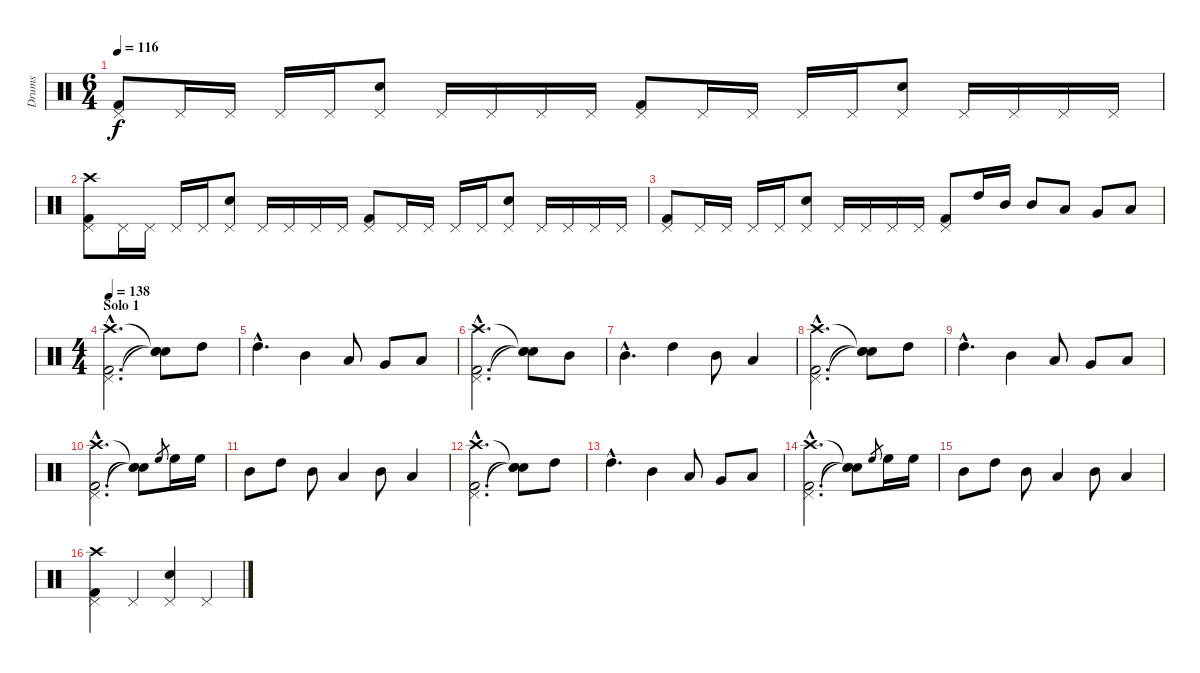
\track ("Drums" "Drums") {instrument percussion}
\staff {score}
\articulation defaults
\ts (6 4)
\tempo 116
\clef neutral
\ks c
("Kick (hit) 2" "Pedal Hi-Hat (hit)").8{dy f} "Pedal Hi-Hat (hit)".16 "Pedal Hi-Hat (hit)".16 "Pedal Hi-Hat (hit)".16 "Pedal Hi-Hat (hit)".16 ("Snare (hit) 2" "Pedal Hi-Hat (hit)").8 "Pedal Hi-Hat (hit)".16 "Pedal Hi-Hat (hit)".16 "Pedal Hi-Hat (hit)".16 "Pedal Hi-Hat (hit)".16 ("Kick (hit) 2" "Pedal Hi-Hat (hit)").8 "Pedal Hi-Hat (hit)".16 "Pedal Hi-Hat (hit)".16 "Pedal Hi-Hat (hit)".16 "Pedal Hi-Hat (hit)".16 ("Snare (hit) 2" "Pedal Hi-Hat (hit)").8 "Pedal Hi-Hat (hit)".16 "Pedal Hi-Hat (hit)".16 "Pedal Hi-Hat (hit)".16 "Pedal Hi-Hat (hit)".16 |
("Kick (hit) 2" "Pedal Hi-Hat (hit)" "Crash high (hit)").8 "Pedal Hi-Hat (hit)".16 "Pedal Hi-Hat (hit)".16 "Pedal Hi-Hat (hit)".16 "Pedal Hi-Hat (hit)".16 ("Snare (hit) 2" "Pedal Hi-Hat (hit)").8 "Pedal Hi-Hat (hit)".16 "Pedal Hi-Hat (hit)".16 "Pedal Hi-Hat (hit)".16 "Pedal Hi-Hat (hit)".16 ("Kick (hit) 2" "Pedal Hi-Hat (hit)").8 "Pedal Hi-Hat (hit)".16 "Pedal Hi-Hat (hit)".16 "Pedal Hi-Hat (hit)".16 "Pedal Hi-Hat (hit)".16 ("Snare (hit) 2" "Pedal Hi-Hat (hit)").8 "Pedal Hi-Hat (hit)".16 "Pedal Hi-Hat (hit)".16 "Pedal Hi-Hat (hit)".16 "Pedal Hi-Hat (hit)".16 |
("Kick (hit) 2" "Pedal Hi-Hat (hit)").8 "Pedal Hi-Hat (hit)".16 "Pedal Hi-Hat (hit)".16 "Pedal Hi-Hat (hit)".16 "Pedal Hi-Hat (hit)".16 ("Snare (hit) 2" "Pedal Hi-Hat (hit)").8 "Pedal Hi-Hat (hit)".16 "Pedal Hi-Hat (hit)".16 "Pedal Hi-Hat (hit)".16 "Pedal Hi-Hat (hit)".16 ("Kick (hit) 2" "Pedal Hi-Hat (hit)").8 "High Tom (hit)".16 "Mid Tom (hit)".16 "Mid Tom (hit)".8 "Low Tom (hit)".8 "Very Low Tom (hit)".8 "Low Floor Tom (hit)".8 |
\ts (4 4)
\section ("" "Solo 1")
\tempo 138
("Kick (hit) 2"{hac} "Pedal Hi-Hat (hit)"{hac} "Crash high (hit)"{hac}).2{d} ("Snare (hit)"{t} "Snare (hit)"{t} "Snare (hit)"{t}).8 "High Tom (hit)".8 |
"High Tom (hit)"{hac}.4{d} "Mid Tom (hit)".4 "Low Tom (hit)".8 "Very Low Tom (hit)".8 "Low Floor Tom (hit)".8 |
("Kick (hit) 2"{hac} "Pedal Hi-Hat (hit)"{hac} "Crash high (hit)"{hac}).2{d} ("Snare (hit)"{t} "Snare (hit)"{t} "Snare (hit)"{t}).8 "Mid Tom (hit)".8 |
"Mid Tom (hit)"{hac}.4{d} "High Tom (hit)".4 "Mid Tom (hit)".8 "Low Tom (hit)".4 |
("Kick (hit) 2"{hac} "Pedal Hi-Hat (hit)"{hac} "Crash high (hit)"{hac}).2{d} ("Snare (hit)"{t} "Snare (hit)"{t} "Snare (hit)"{t}).8 "High Tom (hit)".8 |
"High Tom (hit)"{hac}.4{d} "Mid Tom (hit)".4 "Low Tom (hit)".8 "Very Low Tom (hit)".8 "Low Floor Tom (hit)".8 |
("Kick (hit) 2"{hac} "Pedal Hi-Hat (hit)"{hac} "Crash high (hit)"{hac}).2{d} ("Snare (hit)"{t} "Snare (hit)"{t} "Snare (hit)"{t}).8 "High Floor Tom (hit)".8{gr} "High Floor Tom (hit)".16 "High Floor Tom (hit)".16 |
"Mid Tom (hit)".8 "High Tom (hit)".8 "Mid Tom (hit)".8 "Low Tom (hit)".4 "Mid Tom (hit)".8 "Low Tom (hit)".4 |
("Kick (hit) 2"{hac} "Pedal Hi-Hat (hit)"{hac} "Crash high (hit)"{hac}).2{d} ("Snare (hit)"{t} "Snare (hit)"{t} "Snare (hit)"{t}).8 "High Tom (hit)".8 |
"High Tom (hit)"{hac}.4{d} "Mid Tom (hit)".4 "Low Tom (hit)".8 "Very Low Tom (hit)".8 "Low Floor Tom (hit)".8 |
("Kick (hit) 2"{hac} "Pedal Hi-Hat (hit)"{hac} "Crash high (hit)"{hac}).2{d} ("Snare (hit)"{t} "Snare (hit)"{t} "Snare (hit)"{t}).8 "High Floor Tom (hit)".8{gr} "High Floor Tom (hit)".16 "High Floor Tom (hit)".16 |
"Mid Tom (hit)".8 "High Tom (hit)".8 "Mid Tom (hit)".8 "Low Tom (hit)".4 "Mid Tom (hit)".8 "Low Tom (hit)".4 |
("Kick (hit) 2" "Pedal Hi-Hat (hit)" "Crash high (hit)").4 "Pedal Hi-Hat (hit)".4 ("Snare (hit) 2" "Pedal Hi-Hat (hit)").4 "Pedal Hi-Hat (hit)".4
